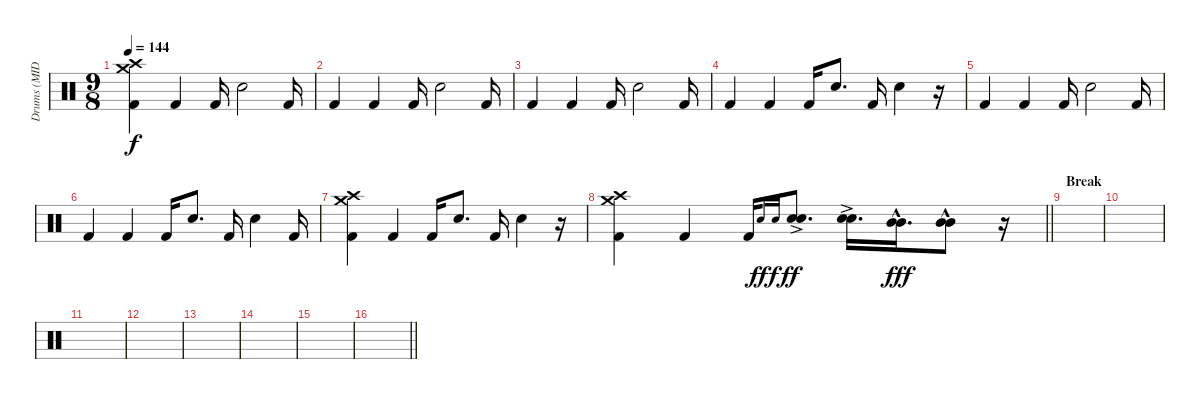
\track ("Drums (MIDI!)" "Drums (MID") {instrument percussion}
\staff {score}
\articulation defaults
\ts (9 8)
\tempo 144
\clef neutral
\ks c
("Crash medium (hit)" "Crash high (hit)" "Kick (hit) 2").4{dy f} "Kick (hit) 2".4 "Kick (hit) 2".16 "Electric Snare (hit)".2 "Kick (hit) 2".16 |
"Kick (hit) 2".4 "Kick (hit) 2".4 "Kick (hit) 2".16 "Electric Snare (hit)".2 "Kick (hit) 2".16 |
"Kick (hit) 2".4 "Kick (hit) 2".4 "Kick (hit) 2".16 "Electric Snare (hit)".2 "Kick (hit) 2".16 |
"Kick (hit) 2".4 "Kick (hit) 2".4 "Kick (hit) 2".16 "Electric Snare (hit)".8{d} "Kick (hit) 2".16 "Electric Snare (hit)".4 r.16 |
"Kick (hit) 2".4 "Kick (hit) 2".4 "Kick (hit) 2".16 "Electric Snare (hit)".2 "Kick (hit) 2".16 |
"Kick (hit) 2".4 "Kick (hit) 2".4 "Kick (hit) 2".16 "Electric Snare (hit)".8{d} "Kick (hit) 2".16 "Electric Snare (hit)".4 "Kick (hit) 2".16 |
("Crash medium (hit)" "Crash high (hit)" "Kick (hit) 2").4 "Kick (hit) 2".4 "Kick (hit) 2".16 "Electric Snare (hit)".8{d} "Kick (hit) 2".16 "Electric Snare (hit)".4 r.16 |
\barLineRight lightlight
("Crash medium (hit)" "Crash high (hit)" "Kick (hit) 2").4 "Kick (hit) 2".4 "Kick (hit) 2".16 "Electric Snare (hit)".16{gr onbeat dy ff} "Electric Snare (hit)".16{gr onbeat dy f} ("Electric Snare (hit)"{ac} "Electric Snare (hit)").8{d dy ff} ("Electric Snare (hit)"{ac} "Electric Snare (hit)").16{d} ("Mid Tom (hit)"{hac} "Mid Tom (hit)").16{d dy fff} ("Mid Tom (hit)"{hac} "Mid Tom (hit)").8 r.16 |
\section ("" "Break")
|
|
|
|
|
|
|
\barLineRight lightlight
